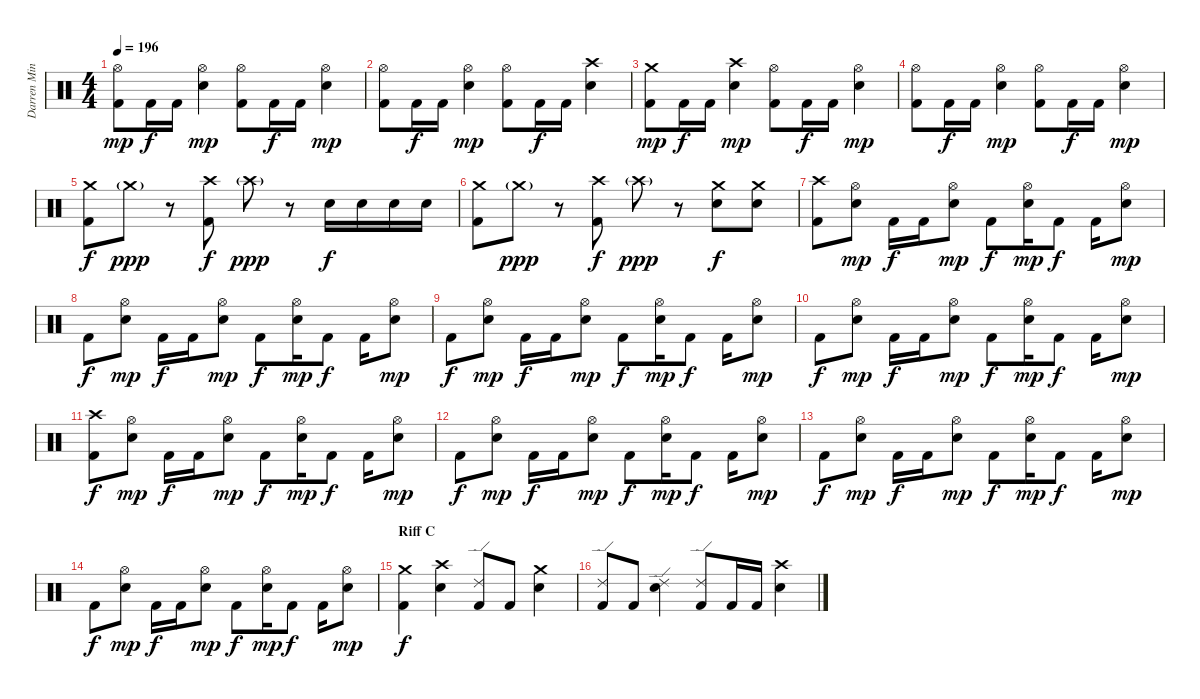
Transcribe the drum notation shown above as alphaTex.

\track ("Darren Minter" "Darren Min") {instrument percussion}
\staff {score}
\articulation defaults
\ts (4 4)
\tempo 196
\clef neutral
\ks c
("Kick (hit) 2" "Hi-Hat (open)").8{dy mp} "Kick (hit) 2".16{dy f} "Kick (hit) 2".16 ("Hi-Hat (open)" "Snare (hit) 2").4{dy mp} ("Kick (hit) 2" "Hi-Hat (open)").8 "Kick (hit) 2".16{dy f} "Kick (hit) 2".16 ("Hi-Hat (open)" "Snare (hit) 2").4{dy mp} |
("Kick (hit) 2" "Hi-Hat (open)").8 "Kick (hit) 2".16{dy f} "Kick (hit) 2".16 ("Hi-Hat (open)" "Snare (hit) 2").4{dy mp} ("Kick (hit) 2" "Hi-Hat (open)").8 "Kick (hit) 2".16{dy f} "Kick (hit) 2".16 ("Crash high (hit)" "Snare (hit) 2").4 |
("Kick (hit) 2" "Crash medium (hit)").8{dy mp} "Kick (hit) 2".16{dy f} "Kick (hit) 2".16 ("Crash high (hit)" "Snare (hit) 2").4{dy mp} ("Kick (hit) 2" "Hi-Hat (open)").8 "Kick (hit) 2".16{dy f} "Kick (hit) 2".16 ("Hi-Hat (open)" "Snare (hit) 2").4{dy mp} |
("Kick (hit) 2" "Hi-Hat (open)").8 "Kick (hit) 2".16{dy f} "Kick (hit) 2".16 ("Hi-Hat (open)" "Snare (hit) 2").4{dy mp} ("Kick (hit) 2" "Hi-Hat (open)").8 "Kick (hit) 2".16{dy f} "Kick (hit) 2".16 ("Hi-Hat (open)" "Snare (hit) 2").4{dy mp} |
("Kick (hit) 2" "Crash medium (hit)").8{dy f} "Crash medium (hit)"{g}.8{dy ppp} r.8 ("Kick (hit) 2" "Crash high (hit)").8{dy f} "Crash high (hit)"{g}.8{dy ppp} r.8 "Snare (hit) 2".16{dy f} "Snare (hit) 2".16 "Snare (hit) 2".16 "Snare (hit) 2".16 |
("Kick (hit) 2" "Crash medium (hit)").8 "Crash medium (hit)"{g}.8{dy ppp} r.8 ("Kick (hit) 2" "Crash high (hit)").8{dy f} "Crash high (hit)"{g}.8{dy ppp} r.8 ("Crash medium (hit)" "Snare (hit) 2").8{dy f} ("Crash medium (hit)" "Snare (hit) 2").8 |
("Kick (hit) 2" "Crash high (hit)").8 ("Hi-Hat (open)" "Snare (hit) 2").8{dy mp} "Kick (hit) 2".16{dy f} "Kick (hit) 2".16 ("Hi-Hat (open)" "Snare (hit) 2").8{dy mp} "Kick (hit) 2".8{dy f} ("Hi-Hat (open)" "Snare (hit) 2").16{dy mp} "Kick (hit) 2".8{dy f} "Kick (hit) 2".16 ("Hi-Hat (open)" "Snare (hit) 2").8{dy mp} |
"Kick (hit) 2".8{dy f} ("Hi-Hat (open)" "Snare (hit) 2").8{dy mp} "Kick (hit) 2".16{dy f} "Kick (hit) 2".16 ("Hi-Hat (open)" "Snare (hit) 2").8{dy mp} "Kick (hit) 2".8{dy f} ("Hi-Hat (open)" "Snare (hit) 2").16{dy mp} "Kick (hit) 2".8{dy f} "Kick (hit) 2".16 ("Hi-Hat (open)" "Snare (hit) 2").8{dy mp} |
"Kick (hit) 2".8{dy f} ("Hi-Hat (open)" "Snare (hit) 2").8{dy mp} "Kick (hit) 2".16{dy f} "Kick (hit) 2".16 ("Hi-Hat (open)" "Snare (hit) 2").8{dy mp} "Kick (hit) 2".8{dy f} ("Hi-Hat (open)" "Snare (hit) 2").16{dy mp} "Kick (hit) 2".8{dy f} "Kick (hit) 2".16 ("Hi-Hat (open)" "Snare (hit) 2").8{dy mp} |
"Kick (hit) 2".8{dy f} ("Hi-Hat (open)" "Snare (hit) 2").8{dy mp} "Kick (hit) 2".16{dy f} "Kick (hit) 2".16 ("Hi-Hat (open)" "Snare (hit) 2").8{dy mp} "Kick (hit) 2".8{dy f} ("Hi-Hat (open)" "Snare (hit) 2").16{dy mp} "Kick (hit) 2".8{dy f} "Kick (hit) 2".16 ("Hi-Hat (open)" "Snare (hit) 2").8{dy mp} |
("Kick (hit) 2" "Crash high (hit)").8{dy f} ("Hi-Hat (open)" "Snare (hit) 2").8{dy mp} "Kick (hit) 2".16{dy f} "Kick (hit) 2".16 ("Hi-Hat (open)" "Snare (hit) 2").8{dy mp} "Kick (hit) 2".8{dy f} ("Hi-Hat (open)" "Snare (hit) 2").16{dy mp} "Kick (hit) 2".8{dy f} "Kick (hit) 2".16 ("Hi-Hat (open)" "Snare (hit) 2").8{dy mp} |
"Kick (hit) 2".8{dy f} ("Hi-Hat (open)" "Snare (hit) 2").8{dy mp} "Kick (hit) 2".16{dy f} "Kick (hit) 2".16 ("Hi-Hat (open)" "Snare (hit) 2").8{dy mp} "Kick (hit) 2".8{dy f} ("Hi-Hat (open)" "Snare (hit) 2").16{dy mp} "Kick (hit) 2".8{dy f} "Kick (hit) 2".16 ("Hi-Hat (open)" "Snare (hit) 2").8{dy mp} |
"Kick (hit) 2".8{dy f} ("Hi-Hat (open)" "Snare (hit) 2").8{dy mp} "Kick (hit) 2".16{dy f} "Kick (hit) 2".16 ("Hi-Hat (open)" "Snare (hit) 2").8{dy mp} "Kick (hit) 2".8{dy f} ("Hi-Hat (open)" "Snare (hit) 2").16{dy mp} "Kick (hit) 2".8{dy f} "Kick (hit) 2".16 ("Hi-Hat (open)" "Snare (hit) 2").8{dy mp} |
"Kick (hit) 2".8{dy f} ("Hi-Hat (open)" "Snare (hit) 2").8{dy mp} "Kick (hit) 2".16{dy f} "Kick (hit) 2".16 ("Hi-Hat (open)" "Snare (hit) 2").8{dy mp} "Kick (hit) 2".8{dy f} ("Hi-Hat (open)" "Snare (hit) 2").16{dy mp} "Kick (hit) 2".8{dy f} "Kick (hit) 2".16 ("Hi-Hat (open)" "Snare (hit) 2").8{dy mp} |
\section ("" "Riff C")
("Kick (hit) 2" "Crash medium (hit)").4{dy f} ("Crash high (hit)" "Snare (hit) 2").4 ("Kick (hit) 2" "Ride (edge) 2").8 "Kick (hit) 2".8 ("Crash medium (hit)" "Snare (hit) 2").4 |
("Kick (hit) 2" "Ride (edge) 2").8 "Kick (hit) 2".8 ("Ride (edge) 2" "Snare (hit) 2").4 ("Kick (hit) 2" "Ride (edge) 2").8 "Kick (hit) 2".16 "Kick (hit) 2".16 ("Crash high (hit)" "Snare (hit) 2").4
